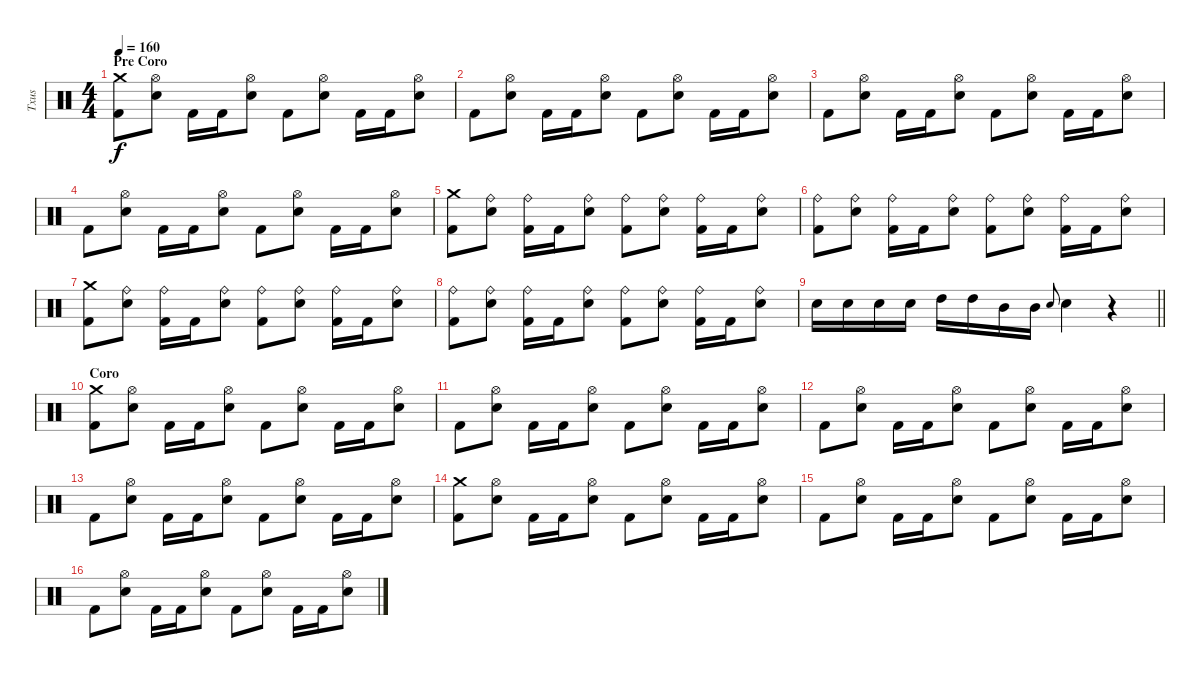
\track ("Txus" "Txus") {instrument percussion}
\staff {score}
\articulation defaults
\ts (4 4)
\section ("" "Pre Coro")
\tempo 160
\clef neutral
\ks c
("Crash medium (hit)" "Kick (hit) 2").8{dy f} ("Hi-Hat (open)" "Snare (hit) 2").8 "Kick (hit) 2".16 "Kick (hit) 2".16 ("Hi-Hat (open)" "Snare (hit) 2").8 "Kick (hit) 2".8 ("Hi-Hat (open)" "Snare (hit) 2").8 "Kick (hit) 2".16 "Kick (hit) 2".16 ("Hi-Hat (open)" "Snare (hit) 2").8 |
"Kick (hit) 2".8 ("Hi-Hat (open)" "Snare (hit) 2").8 "Kick (hit) 2".16 "Kick (hit) 2".16 ("Hi-Hat (open)" "Snare (hit) 2").8 "Kick (hit) 2".8 ("Hi-Hat (open)" "Snare (hit) 2").8 "Kick (hit) 2".16 "Kick (hit) 2".16 ("Hi-Hat (open)" "Snare (hit) 2").8 |
"Kick (hit) 2".8 ("Hi-Hat (open)" "Snare (hit) 2").8 "Kick (hit) 2".16 "Kick (hit) 2".16 ("Hi-Hat (open)" "Snare (hit) 2").8 "Kick (hit) 2".8 ("Hi-Hat (open)" "Snare (hit) 2").8 "Kick (hit) 2".16 "Kick (hit) 2".16 ("Hi-Hat (open)" "Snare (hit) 2").8 |
"Kick (hit) 2".8 ("Hi-Hat (open)" "Snare (hit) 2").8 "Kick (hit) 2".16 "Kick (hit) 2".16 ("Hi-Hat (open)" "Snare (hit) 2").8 "Kick (hit) 2".8 ("Hi-Hat (open)" "Snare (hit) 2").8 "Kick (hit) 2".16 "Kick (hit) 2".16 ("Hi-Hat (open)" "Snare (hit) 2").8 |
("Crash medium (hit)" "Kick (hit) 2").8 ("Ride (bell)" "Snare (hit) 2").8 ("Ride (bell)" "Kick (hit) 2").16 "Kick (hit) 2".16 ("Ride (bell)" "Snare (hit) 2").8 ("Ride (bell)" "Kick (hit) 2").8 ("Ride (bell)" "Snare (hit) 2").8 ("Ride (bell)" "Kick (hit) 2").16 "Kick (hit) 2".16 ("Ride (bell)" "Snare (hit) 2").8 |
("Ride (bell)" "Kick (hit) 2").8 ("Ride (bell)" "Snare (hit) 2").8 ("Ride (bell)" "Kick (hit) 2").16 "Kick (hit) 2".16 ("Ride (bell)" "Snare (hit) 2").8 ("Ride (bell)" "Kick (hit) 2").8 ("Ride (bell)" "Snare (hit) 2").8 ("Ride (bell)" "Kick (hit) 2").16 "Kick (hit) 2".16 ("Ride (bell)" "Snare (hit) 2").8 |
("Crash medium (hit)" "Kick (hit) 2").8 ("Ride (bell)" "Snare (hit) 2").8 ("Ride (bell)" "Kick (hit) 2").16 "Kick (hit) 2".16 ("Ride (bell)" "Snare (hit) 2").8 ("Ride (bell)" "Kick (hit) 2").8 ("Ride (bell)" "Snare (hit) 2").8 ("Ride (bell)" "Kick (hit) 2").16 "Kick (hit) 2".16 ("Ride (bell)" "Snare (hit) 2").8 |
("Ride (bell)" "Kick (hit) 2").8 ("Ride (bell)" "Snare (hit) 2").8 ("Ride (bell)" "Kick (hit) 2").16 "Kick (hit) 2".16 ("Ride (bell)" "Snare (hit) 2").8 ("Ride (bell)" "Kick (hit) 2").8 ("Ride (bell)" "Snare (hit) 2").8 ("Ride (bell)" "Kick (hit) 2").16 "Kick (hit) 2".16 ("Ride (bell)" "Snare (hit) 2").8 |
\barLineRight lightlight "Snare (hit) 2".16 "Snare (hit) 2".16 "Snare (hit) 2".16 "Snare (hit) 2".16 "High Tom (hit)".16 "High Tom (hit)".16 "Mid Tom (hit)".16 "Mid Tom (hit)".16 "Snare (hit) 2".8{gr onbeat} "Snare (hit) 2".4
r.4 |
\section ("" "Coro")
("Crash medium (hit)" "Kick (hit) 2").8 ("Hi-Hat (open)" "Snare (hit) 2").8 "Kick (hit) 2".16 "Kick (hit) 2".16 ("Hi-Hat (open)" "Snare (hit) 2").8 "Kick (hit) 2".8 ("Hi-Hat (open)" "Snare (hit) 2").8 "Kick (hit) 2".16 "Kick (hit) 2".16 ("Hi-Hat (open)" "Snare (hit) 2").8 |
"Kick (hit) 2".8 ("Hi-Hat (open)" "Snare (hit) 2").8 "Kick (hit) 2".16 "Kick (hit) 2".16 ("Hi-Hat (open)" "Snare (hit) 2").8 "Kick (hit) 2".8 ("Hi-Hat (open)" "Snare (hit) 2").8 "Kick (hit) 2".16 "Kick (hit) 2".16 ("Hi-Hat (open)" "Snare (hit) 2").8 |
"Kick (hit) 2".8 ("Hi-Hat (open)" "Snare (hit) 2").8 "Kick (hit) 2".16 "Kick (hit) 2".16 ("Hi-Hat (open)" "Snare (hit) 2").8 "Kick (hit) 2".8 ("Hi-Hat (open)" "Snare (hit) 2").8 "Kick (hit) 2".16 "Kick (hit) 2".16 ("Hi-Hat (open)" "Snare (hit) 2").8 |
"Kick (hit) 2".8 ("Hi-Hat (open)" "Snare (hit) 2").8 "Kick (hit) 2".16 "Kick (hit) 2".16 ("Hi-Hat (open)" "Snare (hit) 2").8 "Kick (hit) 2".8 ("Hi-Hat (open)" "Snare (hit) 2").8 "Kick (hit) 2".16 "Kick (hit) 2".16 ("Hi-Hat (open)" "Snare (hit) 2").8 |
("Crash medium (hit)" "Kick (hit) 2").8 ("Hi-Hat (open)" "Snare (hit) 2").8 "Kick (hit) 2".16 "Kick (hit) 2".16 ("Hi-Hat (open)" "Snare (hit) 2").8 "Kick (hit) 2".8 ("Hi-Hat (open)" "Snare (hit) 2").8 "Kick (hit) 2".16 "Kick (hit) 2".16 ("Hi-Hat (open)" "Snare (hit) 2").8 |
"Kick (hit) 2".8 ("Hi-Hat (open)" "Snare (hit) 2").8 "Kick (hit) 2".16 "Kick (hit) 2".16 ("Hi-Hat (open)" "Snare (hit) 2").8 "Kick (hit) 2".8 ("Hi-Hat (open)" "Snare (hit) 2").8 "Kick (hit) 2".16 "Kick (hit) 2".16 ("Hi-Hat (open)" "Snare (hit) 2").8 |
"Kick (hit) 2".8 ("Hi-Hat (open)" "Snare (hit) 2").8 "Kick (hit) 2".16 "Kick (hit) 2".16 ("Hi-Hat (open)" "Snare (hit) 2").8 "Kick (hit) 2".8 ("Hi-Hat (open)" "Snare (hit) 2").8 "Kick (hit) 2".16 "Kick (hit) 2".16 ("Hi-Hat (open)" "Snare (hit) 2").8
